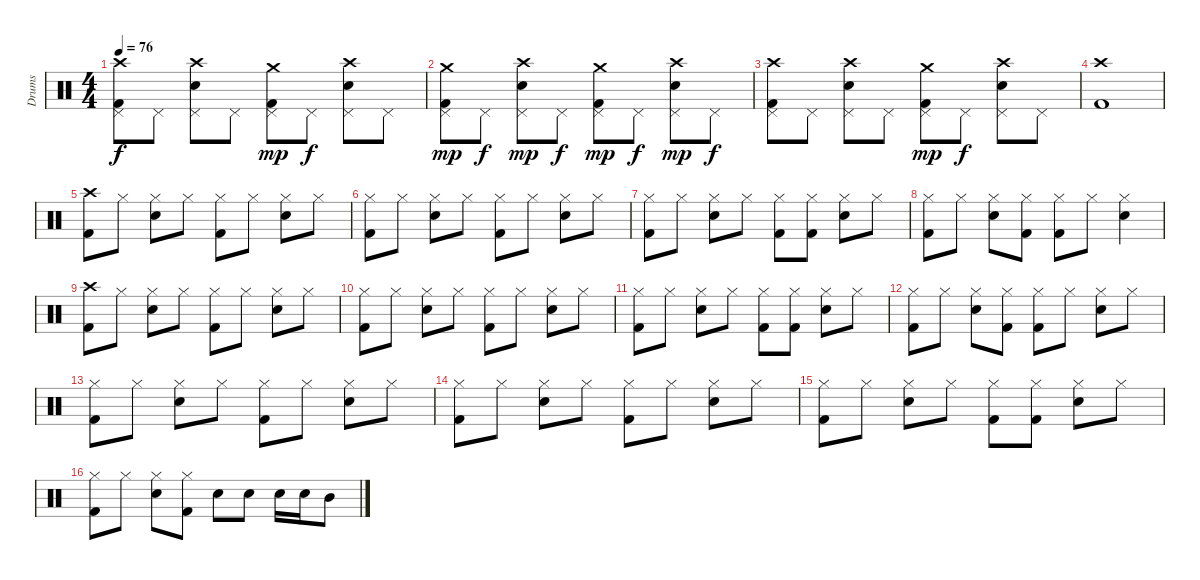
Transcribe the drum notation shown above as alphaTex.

\track ("Drums" "Drums") {instrument percussion}
\staff {score}
\articulation defaults
\ts (4 4)
\tempo 76
\clef neutral
\ks c
("Crash high (hit)" "Pedal Hi-Hat (hit)" "Kick (hit) 2").8{dy f} "Pedal Hi-Hat (hit)".8 ("Crash high (hit)" "Pedal Hi-Hat (hit)" "Snare (hit) 2").8 "Pedal Hi-Hat (hit)".8 ("Crash medium (hit)" "Pedal Hi-Hat (hit)" "Kick (hit) 2").8{dy mp} "Pedal Hi-Hat (hit)".8{dy f} ("Crash high (hit)" "Pedal Hi-Hat (hit)" "Snare (hit) 2").8 "Pedal Hi-Hat (hit)".8 |
("Crash medium (hit)" "Pedal Hi-Hat (hit)" "Kick (hit) 2").8{dy mp} "Pedal Hi-Hat (hit)".8{dy f} ("Crash high (hit)" "Pedal Hi-Hat (hit)" "Snare (hit) 2").8{dy mp} "Pedal Hi-Hat (hit)".8{dy f} ("Crash medium (hit)" "Pedal Hi-Hat (hit)" "Kick (hit) 2").8{dy mp} "Pedal Hi-Hat (hit)".8{dy f} ("Crash high (hit)" "Pedal Hi-Hat (hit)" "Snare (hit) 2").8{dy mp} "Pedal Hi-Hat (hit)".8{dy f} |
("Crash high (hit)" "Pedal Hi-Hat (hit)" "Kick (hit) 2").8 "Pedal Hi-Hat (hit)".8 ("Crash high (hit)" "Pedal Hi-Hat (hit)" "Snare (hit) 2").8 "Pedal Hi-Hat (hit)".8 ("Crash medium (hit)" "Pedal Hi-Hat (hit)" "Kick (hit) 2").8{dy mp} "Pedal Hi-Hat (hit)".8{dy f} ("Crash high (hit)" "Pedal Hi-Hat (hit)" "Snare (hit) 2").8 "Pedal Hi-Hat (hit)".8 |
("Crash high (hit)" "Kick (hit) 2").1 |
("Crash high (hit)" "Kick (hit) 2").8 "Hi-Hat (closed)".8 ("Hi-Hat (closed)" "Snare (hit) 2").8 "Hi-Hat (closed)".8 ("Hi-Hat (closed)" "Kick (hit) 2").8 "Hi-Hat (closed)".8 ("Hi-Hat (closed)" "Snare (hit) 2").8 "Hi-Hat (closed)".8 |
("Hi-Hat (closed)" "Kick (hit) 2").8 "Hi-Hat (closed)".8 ("Hi-Hat (closed)" "Snare (hit) 2").8 "Hi-Hat (closed)".8 ("Hi-Hat (closed)" "Kick (hit) 2").8 "Hi-Hat (closed)".8 ("Hi-Hat (closed)" "Snare (hit) 2").8 "Hi-Hat (closed)".8 |
("Hi-Hat (closed)" "Kick (hit) 2").8 "Hi-Hat (closed)".8 ("Hi-Hat (closed)" "Snare (hit) 2").8 "Hi-Hat (closed)".8 ("Hi-Hat (closed)" "Kick (hit) 2").8 ("Hi-Hat (closed)" "Kick (hit) 2").8 ("Hi-Hat (closed)" "Snare (hit) 2").8 "Hi-Hat (closed)".8 |
("Hi-Hat (closed)" "Kick (hit) 2").8 "Hi-Hat (closed)".8 ("Hi-Hat (closed)" "Snare (hit) 2").8 ("Hi-Hat (closed)" "Kick (hit) 2").8 ("Hi-Hat (closed)" "Kick (hit) 2").8 "Hi-Hat (closed)".8 ("Hi-Hat (closed)" "Snare (hit) 2").4 |
("Crash high (hit)" "Kick (hit) 2").8 "Hi-Hat (closed)".8 ("Hi-Hat (closed)" "Snare (hit) 2").8 "Hi-Hat (closed)".8 ("Hi-Hat (closed)" "Kick (hit) 2").8 "Hi-Hat (closed)".8 ("Hi-Hat (closed)" "Snare (hit) 2").8 "Hi-Hat (closed)".8 |
("Hi-Hat (closed)" "Kick (hit) 2").8 "Hi-Hat (closed)".8 ("Hi-Hat (closed)" "Snare (hit) 2").8 "Hi-Hat (closed)".8 ("Hi-Hat (closed)" "Kick (hit) 2").8 "Hi-Hat (closed)".8 ("Hi-Hat (closed)" "Snare (hit) 2").8 "Hi-Hat (closed)".8 |
("Hi-Hat (closed)" "Kick (hit) 2").8 "Hi-Hat (closed)".8 ("Hi-Hat (closed)" "Snare (hit) 2").8 "Hi-Hat (closed)".8 ("Hi-Hat (closed)" "Kick (hit) 2").8 ("Hi-Hat (closed)" "Kick (hit) 2").8 ("Hi-Hat (closed)" "Snare (hit) 2").8 "Hi-Hat (closed)".8 |
("Hi-Hat (closed)" "Kick (hit) 2").8 "Hi-Hat (closed)".8 ("Hi-Hat (closed)" "Snare (hit) 2").8 ("Hi-Hat (closed)" "Kick (hit) 2").8 ("Hi-Hat (closed)" "Kick (hit) 2").8 "Hi-Hat (closed)".8 ("Hi-Hat (closed)" "Snare (hit) 2").8 "Hi-Hat (closed)".8 |
("Hi-Hat (closed)" "Kick (hit) 2").8 "Hi-Hat (closed)".8 ("Hi-Hat (closed)" "Snare (hit) 2").8 "Hi-Hat (closed)".8 ("Hi-Hat (closed)" "Kick (hit) 2").8 "Hi-Hat (closed)".8 ("Hi-Hat (closed)" "Snare (hit) 2").8 "Hi-Hat (closed)".8 |
("Hi-Hat (closed)" "Kick (hit) 2").8 "Hi-Hat (closed)".8 ("Hi-Hat (closed)" "Snare (hit) 2").8 "Hi-Hat (closed)".8 ("Hi-Hat (closed)" "Kick (hit) 2").8 "Hi-Hat (closed)".8 ("Hi-Hat (closed)" "Snare (hit) 2").8 "Hi-Hat (closed)".8 |
("Hi-Hat (closed)" "Kick (hit) 2").8 "Hi-Hat (closed)".8 ("Hi-Hat (closed)" "Snare (hit) 2").8 "Hi-Hat (closed)".8 ("Hi-Hat (closed)" "Kick (hit) 2").8 ("Hi-Hat (closed)" "Kick (hit) 2").8 ("Hi-Hat (closed)" "Snare (hit) 2").8 "Hi-Hat (closed)".8 |
("Hi-Hat (closed)" "Kick (hit) 2").8 "Hi-Hat (closed)".8 ("Hi-Hat (closed)" "Snare (hit) 2").8 ("Hi-Hat (closed)" "Kick (hit) 2").8 "Snare (hit) 2".8 "Snare (hit) 2".8 "Snare (hit) 2".16 "Snare (hit) 2".16 "Mid Tom (hit)".8
